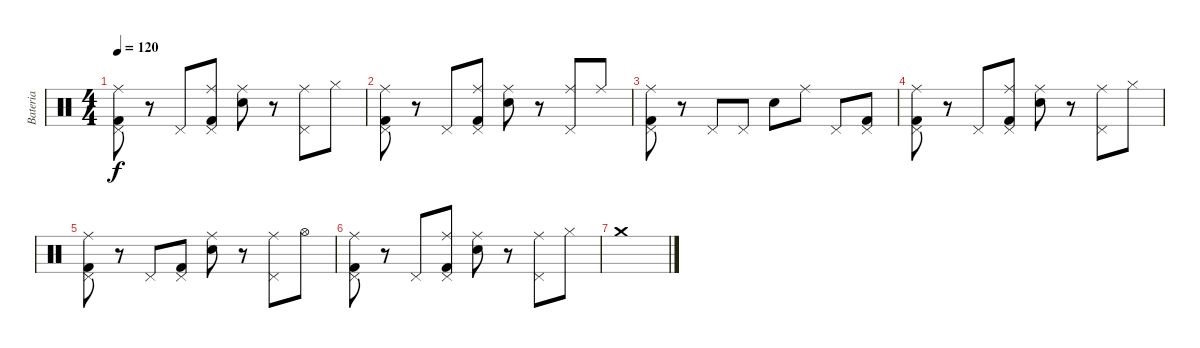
\track ("Bateria" "Bateria") {instrument percussion}
\staff {score}
\articulation defaults
\ts (4 4)
\tempo 120
\clef neutral
\ks c
("Kick (hit) 2" "Pedal Hi-Hat (hit)" "Ride (middle)").8{dy f} r.8 "Pedal Hi-Hat (hit)".8 ("Kick (hit) 2" "Pedal Hi-Hat (hit)" "Ride (middle)").8 ("Snare (hit) 2" "Ride (middle)").8 r.8 ("Pedal Hi-Hat (hit)" "Ride (middle)").8 "Hi-Hat (closed)".8 |
("Kick (hit) 2" "Pedal Hi-Hat (hit)" "Ride (middle)").8 r.8 "Pedal Hi-Hat (hit)".8 ("Kick (hit) 2" "Pedal Hi-Hat (hit)" "Ride (middle)").8 ("Snare (hit) 2" "Ride (middle)").8 r.8 ("Pedal Hi-Hat (hit)" "Ride (middle)").8 "Ride (middle)".8 |
("Kick (hit) 2" "Pedal Hi-Hat (hit)" "Ride (middle)").8 r.8 "Pedal Hi-Hat (hit)".8 "Pedal Hi-Hat (hit)".8 "Snare (hit) 2".8 "Ride (middle)".8 "Pedal Hi-Hat (hit)".8 ("Kick (hit) 2" "Pedal Hi-Hat (hit)").8 |
("Kick (hit) 2" "Pedal Hi-Hat (hit)" "Ride (middle)").8 r.8 "Pedal Hi-Hat (hit)".8 ("Kick (hit) 2" "Pedal Hi-Hat (hit)" "Ride (middle)").8 ("Snare (hit) 2" "Ride (middle)").8 r.8 ("Pedal Hi-Hat (hit)" "Ride (middle)").8 "Hi-Hat (closed)".8 |
("Kick (hit) 2" "Pedal Hi-Hat (hit)" "Ride (middle)").8 r.8 "Pedal Hi-Hat (hit)".8 ("Kick (hit) 2" "Pedal Hi-Hat (hit)").8 ("Snare (hit) 2" "Ride (middle)").8 r.8 ("Pedal Hi-Hat (hit)" "Ride (middle)").8 "Hi-Hat (open)".8 |
("Kick (hit) 2" "Pedal Hi-Hat (hit)" "Ride (middle)").8 r.8 "Pedal Hi-Hat (hit)".8 ("Kick (hit) 2" "Pedal Hi-Hat (hit)" "Ride (middle)").8 ("Snare (hit) 2" "Ride (middle)").8 r.8 ("Pedal Hi-Hat (hit)" "Ride (middle)").8 "Hi-Hat (closed)".8 |
"Crash medium (hit)".1
